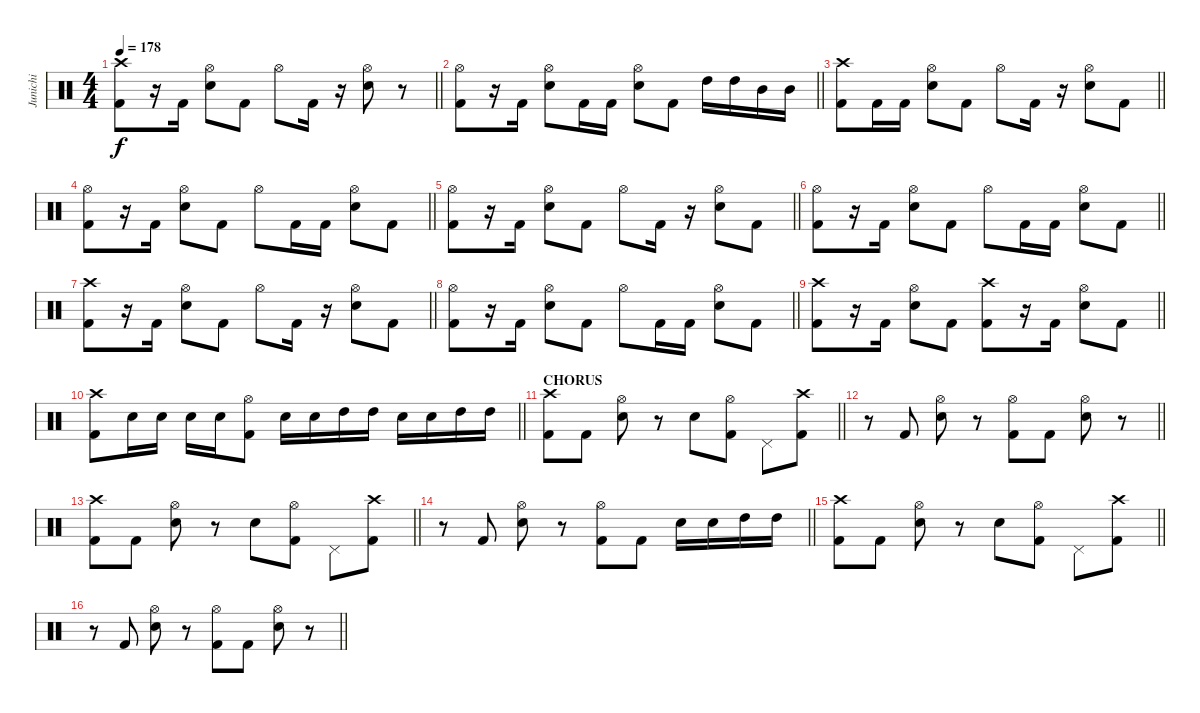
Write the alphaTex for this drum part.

\track ("Junichi" "Junichi") {instrument percussion}
\staff {score}
\articulation defaults
\ts (4 4)
\tempo 178
\clef neutral
\barLineRight lightlight
\ks c
("Crash high (hit)" "Kick (hit) 2").8{dy f} r.16 "Kick (hit) 2".16 ("Hi-Hat (open)" "Snare (hit) 2").8 "Kick (hit) 2".8 "Hi-Hat (open)".8 "Kick (hit) 2".16 r.16 ("Hi-Hat (open)" "Snare (hit) 2").8 r.8 |
\barLineRight lightlight
("Hi-Hat (open)" "Kick (hit) 2").8 r.16 "Kick (hit) 2".16 ("Hi-Hat (open)" "Snare (hit) 2").8 "Kick (hit) 2".16 "Kick (hit) 2".16 ("Hi-Hat (open)" "Snare (hit) 2").8 "Kick (hit) 2".8 "High Tom (hit)".16 "High Tom (hit)".16 "Mid Tom (hit)".16 "Mid Tom (hit)".16 |
\barLineRight lightlight
("Crash high (hit)" "Kick (hit) 2").8 "Kick (hit) 2".16 "Kick (hit) 2".16 ("Hi-Hat (open)" "Snare (hit) 2").8 "Kick (hit) 2".8 "Hi-Hat (open)".8 "Kick (hit) 2".16 r.16 ("Hi-Hat (open)" "Snare (hit) 2").8 "Kick (hit) 2".8 |
\barLineRight lightlight
("Hi-Hat (open)" "Kick (hit) 2").8 r.16 "Kick (hit) 2".16 ("Hi-Hat (open)" "Snare (hit) 2").8 "Kick (hit) 2".8 "Hi-Hat (open)".8 "Kick (hit) 2".16 "Kick (hit) 2".16 ("Hi-Hat (open)" "Snare (hit) 2").8 "Kick (hit) 2".8 |
\barLineRight lightlight
("Hi-Hat (open)" "Kick (hit) 2").8 r.16 "Kick (hit) 2".16 ("Hi-Hat (open)" "Snare (hit) 2").8 "Kick (hit) 2".8 "Hi-Hat (open)".8 "Kick (hit) 2".16 r.16 ("Hi-Hat (open)" "Snare (hit) 2").8 "Kick (hit) 2".8 |
\barLineRight lightlight
("Hi-Hat (open)" "Kick (hit) 2").8 r.16 "Kick (hit) 2".16 ("Hi-Hat (open)" "Snare (hit) 2").8 "Kick (hit) 2".8 "Hi-Hat (open)".8 "Kick (hit) 2".16 "Kick (hit) 2".16 ("Hi-Hat (open)" "Snare (hit) 2").8 "Kick (hit) 2".8 |
\barLineRight lightlight
("Crash high (hit)" "Kick (hit) 2").8 r.16 "Kick (hit) 2".16 ("Hi-Hat (open)" "Snare (hit) 2").8 "Kick (hit) 2".8 "Hi-Hat (open)".8 "Kick (hit) 2".16 r.16 ("Hi-Hat (open)" "Snare (hit) 2").8 "Kick (hit) 2".8 |
\barLineRight lightlight
("Hi-Hat (open)" "Kick (hit) 2").8 r.16 "Kick (hit) 2".16 ("Hi-Hat (open)" "Snare (hit) 2").8 "Kick (hit) 2".8 "Hi-Hat (open)".8 "Kick (hit) 2".16 "Kick (hit) 2".16 ("Hi-Hat (open)" "Snare (hit) 2").8 "Kick (hit) 2".8 |
\barLineRight lightlight
("Crash high (hit)" "Kick (hit) 2").8 r.16 "Kick (hit) 2".16 ("Hi-Hat (open)" "Snare (hit) 2").8 "Kick (hit) 2".8 ("Crash high (hit)" "Kick (hit) 2").8 r.16 "Kick (hit) 2".16 ("Hi-Hat (open)" "Snare (hit) 2").8 "Kick (hit) 2".8 |
\barLineRight lightlight
("Crash high (hit)" "Kick (hit) 2").8 "Snare (hit) 2".16 "Snare (hit) 2".16 "Snare (hit) 2".16 "Snare (hit) 2".16 ("Hi-Hat (open)" "Kick (hit) 2").8 "Snare (hit) 2".16 "Snare (hit) 2".16 "High Tom (hit)".16 "High Tom (hit)".16 "Snare (hit) 2".16 "Snare (hit) 2".16 "High Tom (hit)".16 "High Tom (hit)".16 |
\section ("" "CHORUS")
\barLineRight lightlight
("Crash high (hit)" "Kick (hit) 2").8 "Kick (hit) 2".8 ("Hi-Hat (open)" "Snare (hit) 2").8 r.8 "Snare (hit) 2".8 ("Hi-Hat (open)" "Kick (hit) 2").8 "Pedal Hi-Hat (hit)".8 ("Crash high (hit)" "Kick (hit) 2").8 |
\barLineRight lightlight
r.8 "Kick (hit) 2".8 ("Hi-Hat (open)" "Snare (hit) 2").8 r.8 ("Hi-Hat (open)" "Kick (hit) 2").8 "Kick (hit) 2".8 ("Hi-Hat (open)" "Snare (hit) 2").8 r.8 |
\barLineRight lightlight
("Crash high (hit)" "Kick (hit) 2").8 "Kick (hit) 2".8 ("Hi-Hat (open)" "Snare (hit) 2").8 r.8 "Snare (hit) 2".8 ("Hi-Hat (open)" "Kick (hit) 2").8 "Pedal Hi-Hat (hit)".8 ("Crash high (hit)" "Kick (hit) 2").8 |
\barLineRight lightlight
r.8 "Kick (hit) 2".8 ("Hi-Hat (open)" "Snare (hit) 2").8 r.8 ("Hi-Hat (open)" "Kick (hit) 2").8 "Kick (hit) 2".8 "Snare (hit) 2".16 "Snare (hit) 2".16 "High Tom (hit)".16 "High Tom (hit)".16 |
\barLineRight lightlight
("Crash high (hit)" "Kick (hit) 2").8 "Kick (hit) 2".8 ("Hi-Hat (open)" "Snare (hit) 2").8 r.8 "Snare (hit) 2".8 ("Hi-Hat (open)" "Kick (hit) 2").8 "Pedal Hi-Hat (hit)".8 ("Crash high (hit)" "Kick (hit) 2").8 |
\barLineRight lightlight
r.8 "Kick (hit) 2".8 ("Hi-Hat (open)" "Snare (hit) 2").8 r.8 ("Hi-Hat (open)" "Kick (hit) 2").8 "Kick (hit) 2".8 ("Hi-Hat (open)" "Snare (hit) 2").8 r.8
